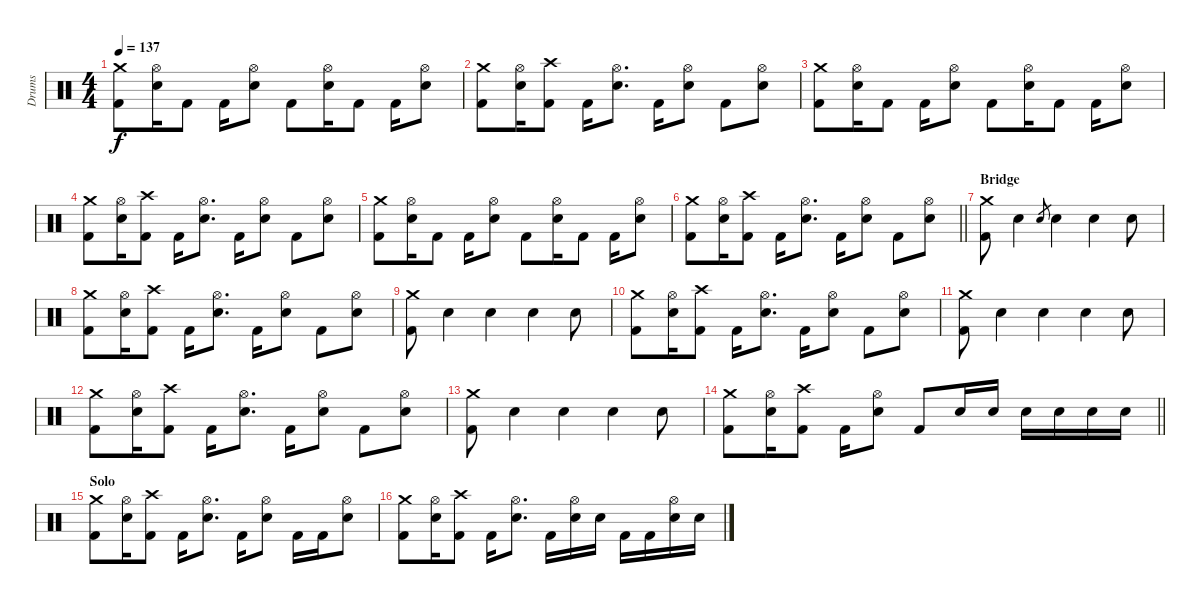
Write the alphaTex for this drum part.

\track ("Drums" "Drums") {instrument percussion}
\staff {score}
\articulation defaults
\ts (4 4)
\tempo 137
\clef neutral
\ks c
("Crash medium (hit)" "Kick (hit) 2").8{dy f} ("Hi-Hat (open)" "Electric Snare (hit)").16 "Kick (hit) 2".8 "Kick (hit) 2".16 ("Hi-Hat (open)" "Electric Snare (hit)").8 "Kick (hit) 2".8 ("Hi-Hat (open)" "Electric Snare (hit)").16 "Kick (hit) 2".8 "Kick (hit) 2".16 ("Hi-Hat (open)" "Electric Snare (hit)").8 |
("Crash medium (hit)" "Kick (hit) 2").8 ("Hi-Hat (open)" "Electric Snare (hit)").16 ("Crash high (hit)" "Kick (hit) 2").8 "Kick (hit) 2".16 ("Hi-Hat (open)" "Electric Snare (hit)").8{d} "Kick (hit) 2".16 ("Hi-Hat (open)" "Electric Snare (hit)").8 "Kick (hit) 2".8 ("Hi-Hat (open)" "Electric Snare (hit)").8 |
("Crash medium (hit)" "Kick (hit) 2").8 ("Hi-Hat (open)" "Electric Snare (hit)").16 "Kick (hit) 2".8 "Kick (hit) 2".16 ("Hi-Hat (open)" "Electric Snare (hit)").8 "Kick (hit) 2".8 ("Hi-Hat (open)" "Electric Snare (hit)").16 "Kick (hit) 2".8 "Kick (hit) 2".16 ("Hi-Hat (open)" "Electric Snare (hit)").8 |
("Crash medium (hit)" "Kick (hit) 2").8 ("Hi-Hat (open)" "Electric Snare (hit)").16 ("Crash high (hit)" "Kick (hit) 2").8 "Kick (hit) 2".16 ("Hi-Hat (open)" "Electric Snare (hit)").8{d} "Kick (hit) 2".16 ("Hi-Hat (open)" "Electric Snare (hit)").8 "Kick (hit) 2".8 ("Hi-Hat (open)" "Electric Snare (hit)").8 |
("Crash medium (hit)" "Kick (hit) 2").8 ("Hi-Hat (open)" "Electric Snare (hit)").16 "Kick (hit) 2".8 "Kick (hit) 2".16 ("Hi-Hat (open)" "Electric Snare (hit)").8 "Kick (hit) 2".8 ("Hi-Hat (open)" "Electric Snare (hit)").16 "Kick (hit) 2".8 "Kick (hit) 2".16 ("Hi-Hat (open)" "Electric Snare (hit)").8 |
\barLineRight lightlight
("Crash medium (hit)" "Kick (hit) 2").8 ("Hi-Hat (open)" "Electric Snare (hit)").16 ("Crash high (hit)" "Kick (hit) 2").8 "Kick (hit) 2".16 ("Hi-Hat (open)" "Electric Snare (hit)").8{d} "Kick (hit) 2".16 ("Hi-Hat (open)" "Electric Snare (hit)").8 "Kick (hit) 2".8 ("Hi-Hat (open)" "Electric Snare (hit)").8 |
\section ("" "Bridge")
("Crash medium (hit)" "Kick (hit) 2").8 "Electric Snare (hit)".4 "Electric Snare (hit)".8{gr} "Electric Snare (hit)".4 "Electric Snare (hit)".4 "Electric Snare (hit)".8 |
("Crash medium (hit)" "Kick (hit) 2").8 ("Hi-Hat (open)" "Electric Snare (hit)").16 ("Crash high (hit)" "Kick (hit) 2").8 "Kick (hit) 2".16 ("Hi-Hat (open)" "Electric Snare (hit)").8{d} "Kick (hit) 2".16 ("Hi-Hat (open)" "Electric Snare (hit)").8 "Kick (hit) 2".8 ("Hi-Hat (open)" "Electric Snare (hit)").8 |
("Crash medium (hit)" "Kick (hit) 2").8 "Electric Snare (hit)".4 "Electric Snare (hit)".4 "Electric Snare (hit)".4 "Electric Snare (hit)".8 |
("Crash medium (hit)" "Kick (hit) 2").8 ("Hi-Hat (open)" "Electric Snare (hit)").16 ("Crash high (hit)" "Kick (hit) 2").8 "Kick (hit) 2".16 ("Hi-Hat (open)" "Electric Snare (hit)").8{d} "Kick (hit) 2".16 ("Hi-Hat (open)" "Electric Snare (hit)").8 "Kick (hit) 2".8 ("Hi-Hat (open)" "Electric Snare (hit)").8 |
("Crash medium (hit)" "Kick (hit) 2").8 "Electric Snare (hit)".4 "Electric Snare (hit)".4 "Electric Snare (hit)".4 "Electric Snare (hit)".8 |
("Crash medium (hit)" "Kick (hit) 2").8 ("Hi-Hat (open)" "Electric Snare (hit)").16 ("Crash high (hit)" "Kick (hit) 2").8 "Kick (hit) 2".16 ("Hi-Hat (open)" "Electric Snare (hit)").8{d} "Kick (hit) 2".16 ("Hi-Hat (open)" "Electric Snare (hit)").8 "Kick (hit) 2".8 ("Hi-Hat (open)" "Electric Snare (hit)").8 |
("Crash medium (hit)" "Kick (hit) 2").8 "Electric Snare (hit)".4 "Electric Snare (hit)".4 "Electric Snare (hit)".4 "Electric Snare (hit)".8 |
\barLineRight lightlight
("Crash medium (hit)" "Kick (hit) 2").8 ("Hi-Hat (open)" "Electric Snare (hit)").16 ("Crash high (hit)" "Kick (hit) 2").8 "Kick (hit) 2".16 ("Hi-Hat (open)" "Electric Snare (hit)").8 "Kick (hit) 2".8 "Electric Snare (hit)".16 "Electric Snare (hit)".16 "Electric Snare (hit)".16 "Electric Snare (hit)".16 "Electric Snare (hit)".16 "Electric Snare (hit)".16 |
\section ("" "Solo")
("Crash medium (hit)" "Kick (hit) 2").8 ("Hi-Hat (open)" "Electric Snare (hit)").16 ("Crash high (hit)" "Kick (hit) 2").8 "Kick (hit) 2".16 ("Hi-Hat (open)" "Electric Snare (hit)").8{d} "Kick (hit) 2".16 ("Hi-Hat (open)" "Electric Snare (hit)").8 "Kick (hit) 2".16 "Kick (hit) 2".16 ("Hi-Hat (open)" "Electric Snare (hit)").8 |
("Crash medium (hit)" "Kick (hit) 2").8 ("Hi-Hat (open)" "Electric Snare (hit)").16 ("Crash high (hit)" "Kick (hit) 2").8 "Kick (hit) 2".16 ("Hi-Hat (open)" "Electric Snare (hit)").8{d} "Kick (hit) 2".16 ("Hi-Hat (open)" "Electric Snare (hit)").16 "Electric Snare (hit)".16 "Kick (hit) 2".16 "Kick (hit) 2".16 ("Hi-Hat (open)" "Electric Snare (hit)").16 "Electric Snare (hit)".16
